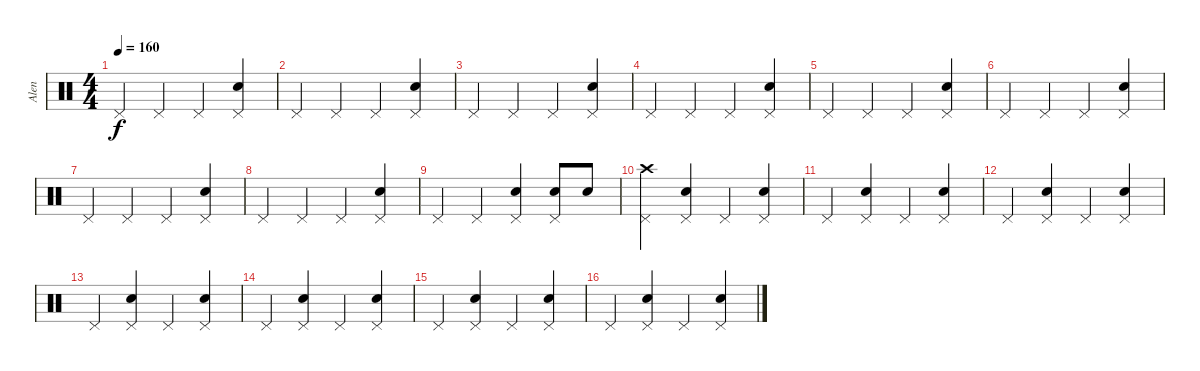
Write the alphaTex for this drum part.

\track ("Alen" "Alen") {instrument percussion}
\staff {score}
\articulation defaults
\ts (4 4)
\tempo 160
\clef neutral
\ks c "Pedal Hi-Hat (hit)".4{dy f} "Pedal Hi-Hat (hit)".4 "Pedal Hi-Hat (hit)".4
("Pedal Hi-Hat (hit)" "Snare (hit) 2").4 |
"Pedal Hi-Hat (hit)".4 "Pedal Hi-Hat (hit)".4 "Pedal Hi-Hat (hit)".4 ("Pedal Hi-Hat (hit)" "Snare (hit) 2").4 |
"Pedal Hi-Hat (hit)".4 "Pedal Hi-Hat (hit)".4 "Pedal Hi-Hat (hit)".4 ("Pedal Hi-Hat (hit)" "Snare (hit) 2").4 |
"Pedal Hi-Hat (hit)".4 "Pedal Hi-Hat (hit)".4 "Pedal Hi-Hat (hit)".4 ("Pedal Hi-Hat (hit)" "Snare (hit) 2").4 |
"Pedal Hi-Hat (hit)".4 "Pedal Hi-Hat (hit)".4 "Pedal Hi-Hat (hit)".4 ("Pedal Hi-Hat (hit)" "Snare (hit) 2").4 |
"Pedal Hi-Hat (hit)".4 "Pedal Hi-Hat (hit)".4 "Pedal Hi-Hat (hit)".4 ("Pedal Hi-Hat (hit)" "Snare (hit) 2").4 |
"Pedal Hi-Hat (hit)".4 "Pedal Hi-Hat (hit)".4 "Pedal Hi-Hat (hit)".4 ("Pedal Hi-Hat (hit)" "Snare (hit) 2").4 |
"Pedal Hi-Hat (hit)".4 "Pedal Hi-Hat (hit)".4 "Pedal Hi-Hat (hit)".4 ("Pedal Hi-Hat (hit)" "Snare (hit) 2").4 |
"Pedal Hi-Hat (hit)".4 "Pedal Hi-Hat (hit)".4 ("Pedal Hi-Hat (hit)" "Snare (hit) 2").4 ("Pedal Hi-Hat (hit)" "Snare (hit) 2").8 "Snare (hit) 2".8 |
("Pedal Hi-Hat (hit)" "Crash high (hit)").4 ("Pedal Hi-Hat (hit)" "Snare (hit) 2").4 "Pedal Hi-Hat (hit)".4 ("Pedal Hi-Hat (hit)" "Snare (hit) 2").4 |
"Pedal Hi-Hat (hit)".4 ("Pedal Hi-Hat (hit)" "Snare (hit) 2").4 "Pedal Hi-Hat (hit)".4 ("Pedal Hi-Hat (hit)" "Snare (hit) 2").4 |
"Pedal Hi-Hat (hit)".4 ("Pedal Hi-Hat (hit)" "Snare (hit) 2").4 "Pedal Hi-Hat (hit)".4 ("Pedal Hi-Hat (hit)" "Snare (hit) 2").4 |
"Pedal Hi-Hat (hit)".4 ("Pedal Hi-Hat (hit)" "Snare (hit) 2").4 "Pedal Hi-Hat (hit)".4 ("Pedal Hi-Hat (hit)" "Snare (hit) 2").4 |
"Pedal Hi-Hat (hit)".4 ("Pedal Hi-Hat (hit)" "Snare (hit) 2").4 "Pedal Hi-Hat (hit)".4 ("Pedal Hi-Hat (hit)" "Snare (hit) 2").4 |
"Pedal Hi-Hat (hit)".4 ("Pedal Hi-Hat (hit)" "Snare (hit) 2").4 "Pedal Hi-Hat (hit)".4 ("Pedal Hi-Hat (hit)" "Snare (hit) 2").4 |
"Pedal Hi-Hat (hit)".4 ("Pedal Hi-Hat (hit)" "Snare (hit) 2").4 "Pedal Hi-Hat (hit)".4 ("Pedal Hi-Hat (hit)" "Snare (hit) 2").4
